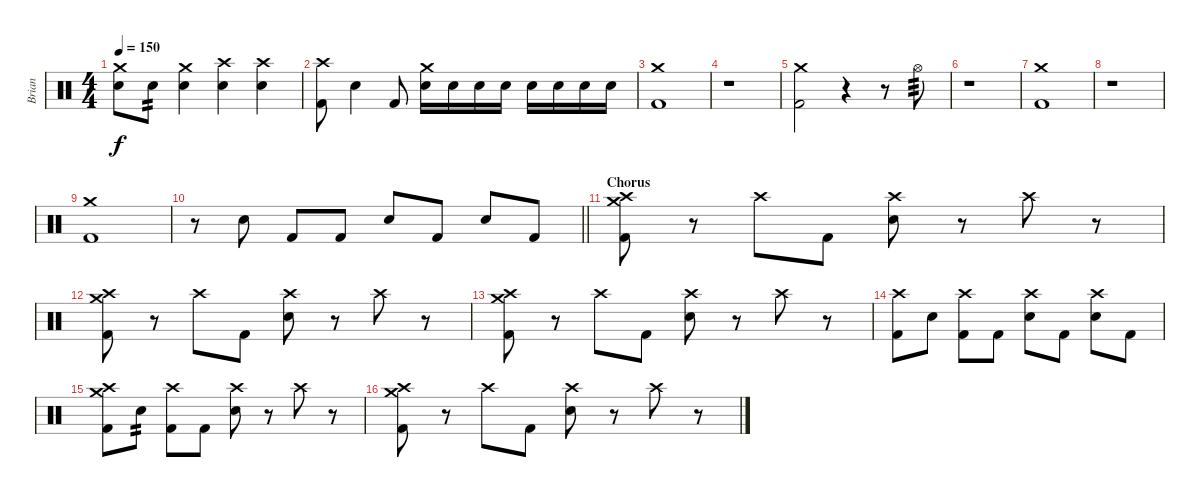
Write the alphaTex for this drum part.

\track ("Brian" "Brian") {instrument percussion}
\staff {score}
\articulation defaults
\ts (4 4)
\tempo 150
\clef neutral
\ks c
("Crash medium (hit)" "Snare (hit) 2").8{dy f} "Snare (hit) 2".8{tp 2} ("Crash medium (hit)" "Snare (hit) 2").4 ("Crash high (hit)" "Snare (hit) 2").4 ("Crash high (hit)" "Snare (hit) 2").4 |
("Crash high (hit)" "Kick (hit) 2").8 "Snare (hit) 2".4 "Kick (hit) 2".8 ("Crash medium (hit)" "Snare (hit) 2").16 "Snare (hit) 2".16 "Snare (hit) 2".16 "Snare (hit) 2".16 "Snare (hit) 2".16 "Snare (hit) 2".16 "Snare (hit) 2".16 "Snare (hit) 2".16 |
("Crash medium (hit)" "Kick (hit) 2").1 |
r.1 |
("Crash medium (hit)" "Kick (hit) 2").2 r.4 r.8 "Hi-Hat (open)".8{tp 3} |
r.1 |
("Crash medium (hit)" "Kick (hit) 2").1 |
r.1 |
("Crash medium (hit)" "Kick (hit) 2").1 |
\barLineRight lightlight
r.8 "Snare (hit) 2".8 "Kick (hit) 2".8 "Kick (hit) 2".8 "Snare (hit) 2".8 "Kick (hit) 2".8 "Snare (hit) 2".8 "Kick (hit) 2".8 |
\section ("" "Chorus")
("Crash high (hit)" "Crash medium (hit)" "Kick (hit) 2").8 r.8 "Crash high (hit)".8 "Kick (hit) 2".8 ("Crash high (hit)" "Snare (hit) 2").8 r.8 "Crash high (hit)".8 r.8 |
("Crash high (hit)" "Crash medium (hit)" "Kick (hit) 2").8 r.8 "Crash high (hit)".8 "Kick (hit) 2".8 ("Crash high (hit)" "Snare (hit) 2").8 r.8 "Crash high (hit)".8 r.8 |
("Crash high (hit)" "Crash medium (hit)" "Kick (hit) 2").8 r.8 "Crash high (hit)".8 "Kick (hit) 2".8 ("Crash high (hit)" "Snare (hit) 2").8 r.8 "Crash high (hit)".8 r.8 |
("Crash high (hit)" "Kick (hit) 2").8 "Snare (hit) 2".8 ("Crash high (hit)" "Kick (hit) 2").8 "Kick (hit) 2".8 ("Crash high (hit)" "Snare (hit) 2").8 "Kick (hit) 2".8 ("Crash high (hit)" "Snare (hit) 2").8 "Kick (hit) 2".8 |
("Crash high (hit)" "Crash medium (hit)" "Kick (hit) 2").8 "Snare (hit) 2".8{tp 2} ("Crash high (hit)" "Kick (hit) 2").8 "Kick (hit) 2".8 ("Crash high (hit)" "Snare (hit) 2").8 r.8 "Crash high (hit)".8 r.8 |
("Crash high (hit)" "Crash medium (hit)" "Kick (hit) 2").8 r.8 "Crash high (hit)".8 "Kick (hit) 2".8 ("Crash high (hit)" "Snare (hit) 2").8 r.8 "Crash high (hit)".8 r.8
